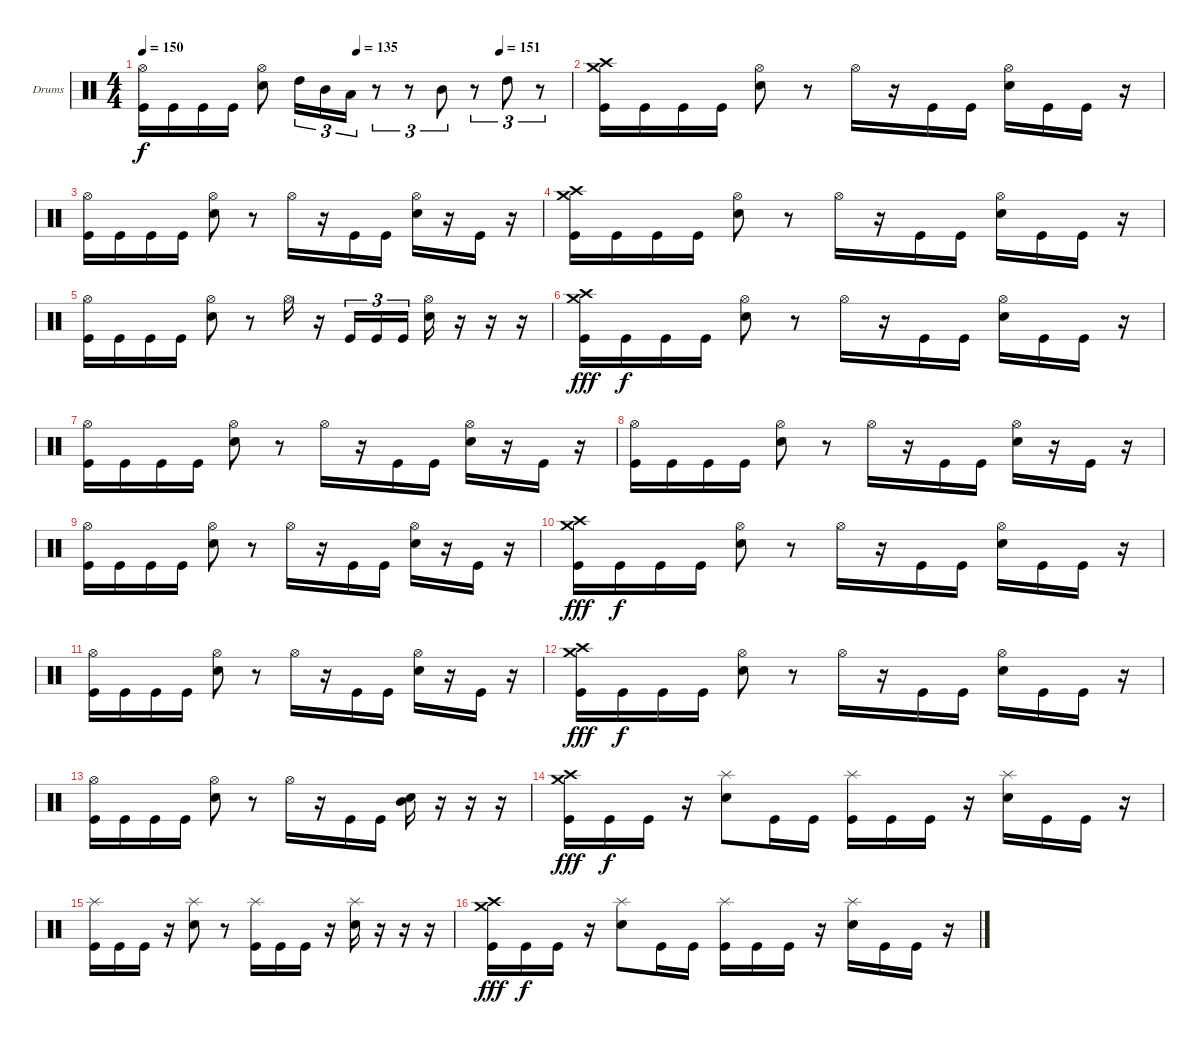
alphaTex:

\bracketExtendMode groupsimilarinstruments
\firstSystemTrackNameOrientation horizontal
\otherSystemsTrackNameOrientation horizontal
\track ("Ударные" "Drums") {instrument percussion}
\staff {score}
\articulation defaults
\ts (4 4)
\tempo 150
\tempo (135 0.5)
\tempo (151 0.833333)
\clef neutral
\ks c
("Hi-Hat (open)" "Kick (hit)").16{dy f} "Kick (hit)".16 "Kick (hit)".16 "Kick (hit)".16 ("Hi-Hat (open)" "Snare (hit) 2").8 "High Tom (hit)".16{tu (3 2)} "Mid Tom (hit)".16{tu (3 2)} "Low Tom (hit)".16{tu (3 2)} r.8{tu (3 2)} r.8{tu (3 2)} "Mid Tom (hit)".8{tu (3 2)} r.8{tu (3 2)} "High Tom (hit)".8{tu (3 2)} r.8{tu (3 2)} |
("Crash medium (hit)" "Crash high (hit)" "Kick (hit)").16 "Kick (hit)".16 "Kick (hit)".16 "Kick (hit)".16 ("Hi-Hat (open)" "Snare (hit) 2").8 r.8 "Hi-Hat (open)".16 r.16 "Kick (hit)".16 "Kick (hit)".16 ("Hi-Hat (open)" "Snare (hit) 2").16 "Kick (hit)".16 "Kick (hit)".16 r.16 |
("Hi-Hat (open)" "Kick (hit)").16 "Kick (hit)".16 "Kick (hit)".16 "Kick (hit)".16 ("Hi-Hat (open)" "Snare (hit) 2").8 r.8 "Hi-Hat (open)".16 r.16 "Kick (hit)".16 "Kick (hit)".16 ("Hi-Hat (open)" "Snare (hit) 2").16 r.16 "Kick (hit)".16 r.16 |
("Crash medium (hit)" "Crash high (hit)" "Kick (hit)").16 "Kick (hit)".16 "Kick (hit)".16 "Kick (hit)".16 ("Hi-Hat (open)" "Snare (hit) 2").8 r.8 "Hi-Hat (open)".16 r.16 "Kick (hit)".16 "Kick (hit)".16 ("Hi-Hat (open)" "Snare (hit) 2").16 "Kick (hit)".16 "Kick (hit)".16 r.16 |
("Hi-Hat (open)" "Kick (hit)").16 "Kick (hit)".16 "Kick (hit)".16 "Kick (hit)".16 ("Hi-Hat (open)" "Snare (hit) 2").8 r.8 "Hi-Hat (open)".16 r.16 "Kick (hit)".16{tu (3 2)} "Kick (hit)".16{tu (3 2)} "Kick (hit)".16{tu (3 2)} ("Hi-Hat (open)" "Snare (hit) 2").16 r.16 r.16 r.16 |
("Crash medium (hit)" "Crash high (hit)" "Kick (hit)").16{dy fff} "Kick (hit)".16{dy f} "Kick (hit)".16 "Kick (hit)".16 ("Hi-Hat (open)" "Snare (hit) 2").8 r.8 "Hi-Hat (open)".16 r.16 "Kick (hit)".16 "Kick (hit)".16 ("Hi-Hat (open)" "Snare (hit) 2").16 "Kick (hit)".16 "Kick (hit)".16 r.16 |
("Hi-Hat (open)" "Kick (hit)").16 "Kick (hit)".16 "Kick (hit)".16 "Kick (hit)".16 ("Hi-Hat (open)" "Snare (hit) 2").8 r.8 "Hi-Hat (open)".16 r.16 "Kick (hit)".16 "Kick (hit)".16 ("Hi-Hat (open)" "Snare (hit) 2").16 r.16 "Kick (hit)".16 r.16 |
("Hi-Hat (open)" "Kick (hit)").16 "Kick (hit)".16 "Kick (hit)".16 "Kick (hit)".16 ("Hi-Hat (open)" "Snare (hit) 2").8 r.8 "Hi-Hat (open)".16 r.16 "Kick (hit)".16 "Kick (hit)".16 ("Hi-Hat (open)" "Snare (hit) 2").16 r.16 "Kick (hit)".16 r.16 |
("Hi-Hat (open)" "Kick (hit)").16 "Kick (hit)".16 "Kick (hit)".16 "Kick (hit)".16 ("Hi-Hat (open)" "Snare (hit) 2").8 r.8 "Hi-Hat (open)".16 r.16 "Kick (hit)".16 "Kick (hit)".16 ("Hi-Hat (open)" "Snare (hit) 2").16 r.16 "Kick (hit)".16 r.16 |
("Crash medium (hit)" "Crash high (hit)" "Kick (hit)").16{dy fff} "Kick (hit)".16{dy f} "Kick (hit)".16 "Kick (hit)".16 ("Hi-Hat (open)" "Snare (hit) 2").8 r.8 "Hi-Hat (open)".16 r.16 "Kick (hit)".16 "Kick (hit)".16 ("Hi-Hat (open)" "Snare (hit) 2").16 "Kick (hit)".16 "Kick (hit)".16 r.16 |
("Hi-Hat (open)" "Kick (hit)").16 "Kick (hit)".16 "Kick (hit)".16 "Kick (hit)".16 ("Hi-Hat (open)" "Snare (hit) 2").8 r.8 "Hi-Hat (open)".16 r.16 "Kick (hit)".16 "Kick (hit)".16 ("Hi-Hat (open)" "Snare (hit) 2").16 r.16 "Kick (hit)".16 r.16 |
("Crash medium (hit)" "Crash high (hit)" "Kick (hit)").16{dy fff} "Kick (hit)".16{dy f} "Kick (hit)".16 "Kick (hit)".16 ("Hi-Hat (open)" "Snare (hit) 2").8 r.8 "Hi-Hat (open)".16 r.16 "Kick (hit)".16 "Kick (hit)".16 ("Hi-Hat (open)" "Snare (hit) 2").16 "Kick (hit)".16 "Kick (hit)".16 r.16 |
("Hi-Hat (open)" "Kick (hit)").16 "Kick (hit)".16 "Kick (hit)".16 "Kick (hit)".16 ("Hi-Hat (open)" "Snare (hit) 2").8 r.8 "Hi-Hat (open)".16 r.16 "Kick (hit)".16 "Kick (hit)".16 ("Snare (hit) 2" "Mid Tom (hit)").16 r.16 r.16 r.16 |
("Crash medium (hit)" "Crash high (hit)" "Kick (hit)").16{dy fff} "Kick (hit)".16{dy f} "Kick (hit)".16 r.16 ("Splash (hit)" "Snare (hit) 2").8 "Kick (hit)".16 "Kick (hit)".16 ("Splash (hit)" "Kick (hit)").16 "Kick (hit)".16 "Kick (hit)".16 r.16 ("Splash (hit)" "Snare (hit) 2").16 "Kick (hit)".16 "Kick (hit)".16 r.16 |
("Splash (hit)" "Kick (hit)").16 "Kick (hit)".16 "Kick (hit)".16 r.16 ("Splash (hit)" "Snare (hit) 2").8 r.8 ("Splash (hit)" "Kick (hit)").16 "Kick (hit)".16 "Kick (hit)".16 r.16 ("Splash (hit)" "Snare (hit) 2").16 r.16 r.16 r.16 |
("Crash medium (hit)" "Crash high (hit)" "Kick (hit)").16{dy fff} "Kick (hit)".16{dy f} "Kick (hit)".16 r.16 ("Splash (hit)" "Snare (hit) 2").8 "Kick (hit)".16 "Kick (hit)".16 ("Splash (hit)" "Kick (hit)").16 "Kick (hit)".16 "Kick (hit)".16 r.16 ("Splash (hit)" "Snare (hit) 2").16 "Kick (hit)".16 "Kick (hit)".16 r.16
